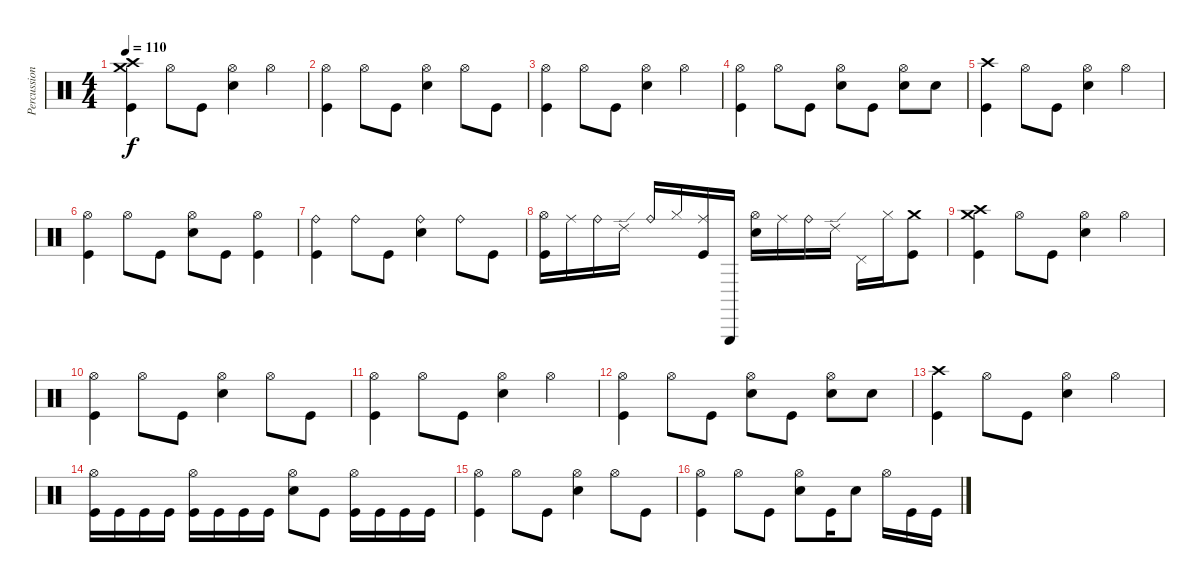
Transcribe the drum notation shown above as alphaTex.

\track ("Percussion" "Percussion") {instrument percussion}
\staff {score}
\articulation defaults
\ts (4 4)
\tempo 110
\clef neutral
\ks c
("Crash high (hit)" "Crash medium (hit)" "Kick (hit)").4{dy f} "Hi-Hat (open)".8 "Kick (hit)".8 ("Hi-Hat (open)" "Snare (hit) 2").4 "Hi-Hat (open)".4 |
("Hi-Hat (open)" "Kick (hit)").4 "Hi-Hat (open)".8 "Kick (hit)".8 ("Hi-Hat (open)" "Snare (hit) 2").4 "Hi-Hat (open)".8 "Kick (hit)".8 |
("Hi-Hat (open)" "Kick (hit)").4 "Hi-Hat (open)".8 "Kick (hit)".8 ("Hi-Hat (open)" "Snare (hit) 2").4 "Hi-Hat (open)".4 |
("Hi-Hat (open)" "Kick (hit)").4 "Hi-Hat (open)".8 "Kick (hit)".8 ("Hi-Hat (open)" "Snare (hit) 2").8 "Kick (hit)".8 ("Hi-Hat (open)" "Snare (hit) 2").8 "Snare (hit) 2".8 |
("Crash high (hit)" "Kick (hit)").4 "Hi-Hat (open)".8 "Kick (hit)".8 ("Hi-Hat (open)" "Snare (hit) 2").4 "Hi-Hat (open)".4 |
("Hi-Hat (open)" "Kick (hit)").4 "Hi-Hat (open)".8 "Kick (hit)".8 ("Hi-Hat (open)" "Snare (hit) 2").8 "Kick (hit)".8 ("Hi-Hat (open)" "Kick (hit)").4 |
("Ride (bell)" "Kick (hit)").4 "Ride (bell)".8 "Kick (hit)".8 ("Ride (bell)" "Snare (hit) 2").4 "Ride (bell)".8 "Kick (hit)".8 |
("Hi-Hat (open)" "Kick (hit)").16 "Ride (middle)".16 "Ride (bell)".16 "Ride (edge) 2".16 "Ride (bell)".16 "Hi-Hat (closed)".16 ("Ride (middle)" "Kick (hit)").16 "Triangle (hit)".16 ("Hi-Hat (open)" "Snare (hit) 2").16 "Ride (middle)".16 "Ride (bell)".16 "Ride (edge) 2".16 "Pedal Hi-Hat (hit)".16 "Hi-Hat (closed)".16 ("Crash medium (hit)" "Kick (hit)").8 |
("Crash high (hit)" "Crash medium (hit)" "Kick (hit)").4 "Hi-Hat (open)".8 "Kick (hit)".8 ("Hi-Hat (open)" "Snare (hit) 2").4 "Hi-Hat (open)".4 |
("Hi-Hat (open)" "Kick (hit)").4 "Hi-Hat (open)".8 "Kick (hit)".8 ("Hi-Hat (open)" "Snare (hit) 2").4 "Hi-Hat (open)".8 "Kick (hit)".8 |
("Hi-Hat (open)" "Kick (hit)").4 "Hi-Hat (open)".8 "Kick (hit)".8 ("Hi-Hat (open)" "Snare (hit) 2").4 "Hi-Hat (open)".4 |
("Hi-Hat (open)" "Kick (hit)").4 "Hi-Hat (open)".8 "Kick (hit)".8 ("Hi-Hat (open)" "Snare (hit) 2").8 "Kick (hit)".8 ("Hi-Hat (open)" "Snare (hit) 2").8 "Snare (hit) 2".8 |
("Crash high (hit)" "Kick (hit)").4 "Hi-Hat (open)".8 "Kick (hit)".8 ("Hi-Hat (open)" "Snare (hit) 2").4 "Hi-Hat (open)".4 |
("Hi-Hat (open)" "Kick (hit)").16 "Kick (hit)".16 "Kick (hit)".16 "Kick (hit)".16 ("Hi-Hat (open)" "Kick (hit)").16 "Kick (hit)".16 "Kick (hit)".16 "Kick (hit)".16 ("Hi-Hat (open)" "Snare (hit) 2").8 "Kick (hit)".8 ("Hi-Hat (open)" "Kick (hit)").16 "Kick (hit)".16 "Kick (hit)".16 "Kick (hit)".16 |
("Hi-Hat (open)" "Kick (hit)").4 "Hi-Hat (open)".8 "Kick (hit)".8 ("Hi-Hat (open)" "Snare (hit) 2").4 "Hi-Hat (open)".8 "Kick (hit)".8 |
("Hi-Hat (open)" "Kick (hit)").4 "Hi-Hat (open)".8 "Kick (hit)".8 ("Hi-Hat (open)" "Snare (hit) 2").8 "Kick (hit)".16 "Snare (hit) 2".8 "Hi-Hat (open)".16 "Kick (hit)".16 "Kick (hit)".16
